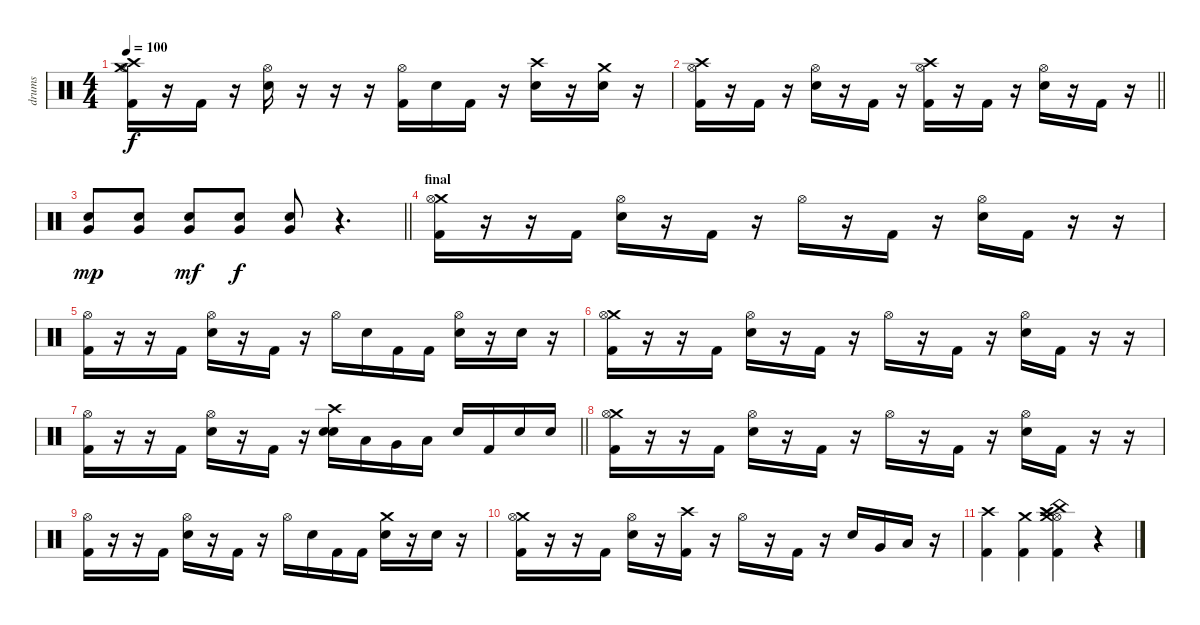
\track ("drums" "drums") {instrument percussion}
\staff {score}
\articulation defaults
\ts (4 4)
\tempo 100
\clef neutral
\ks c
("Crash medium (hit)" "Crash high (hit)" "Hi-Hat (open)" "Kick (hit) 2").16{dy f} r.16 "Kick (hit) 2".16 r.16 ("Hi-Hat (open)" "Electric Snare (hit)").16 r.16 r.16 r.16 ("Hi-Hat (open)" "Kick (hit) 2").16 "Electric Snare (hit)".16 "Kick (hit) 2".16 r.16 ("Crash high (hit)" "Electric Snare (hit)").16 r.16 ("Crash medium (hit)" "Electric Snare (hit)").16 r.16 |
\barLineRight lightlight
("Crash high (hit)" "Hi-Hat (open)" "Kick (hit) 2").16 r.16 "Kick (hit) 2".16 r.16 ("Hi-Hat (open)" "Electric Snare (hit)").16 r.16 "Kick (hit) 2".16 r.16 ("Crash high (hit)" "Hi-Hat (open)" "Kick (hit) 2").16 r.16 "Kick (hit) 2".16 r.16 ("Hi-Hat (open)" "Electric Snare (hit)").16 r.16 "Kick (hit) 2".16 r.16 |
\barLineRight lightlight
("Electric Snare (hit)" "Very Low Tom (hit)").8{dy mp} ("Electric Snare (hit)" "Very Low Tom (hit)").8 ("Electric Snare (hit)" "Very Low Tom (hit)").8{dy mf} ("Electric Snare (hit)" "Very Low Tom (hit)").8{dy f} ("Electric Snare (hit)" "Very Low Tom (hit)").8 r.4{d} |
\section ("" "final")
("Crash medium (hit)" "Hi-Hat (open)" "Kick (hit) 2").16 r.16 r.16 "Kick (hit) 2".16 ("Hi-Hat (open)" "Electric Snare (hit)").16 r.16 "Kick (hit) 2".16 r.16 "Hi-Hat (open)".16 r.16 "Kick (hit) 2".16 r.16 ("Hi-Hat (open)" "Electric Snare (hit)").16 "Kick (hit) 2".16 r.16 r.16 |
("Hi-Hat (open)" "Kick (hit) 2").16 r.16 r.16 "Kick (hit) 2".16 ("Hi-Hat (open)" "Electric Snare (hit)").16 r.16 "Kick (hit) 2".16 r.16 "Hi-Hat (open)".16 "Electric Snare (hit)".16 "Kick (hit) 2".16 "Kick (hit) 2".16 ("Hi-Hat (open)" "Electric Snare (hit)").16 r.16 "Electric Snare (hit)".16 r.16 |
("Crash medium (hit)" "Hi-Hat (open)" "Kick (hit) 2").16 r.16 r.16 "Kick (hit) 2".16 ("Hi-Hat (open)" "Electric Snare (hit)").16 r.16 "Kick (hit) 2".16 r.16 "Hi-Hat (open)".16 r.16 "Kick (hit) 2".16 r.16 ("Hi-Hat (open)" "Electric Snare (hit)").16 "Kick (hit) 2".16 r.16 r.16 |
\barLineRight lightlight
("Hi-Hat (open)" "Kick (hit) 2").16 r.16 r.16 "Kick (hit) 2".16 ("Hi-Hat (open)" "Electric Snare (hit)").16 r.16 "Kick (hit) 2".16 r.16 ("Crash high (hit)" "Electric Snare (hit)" "Electric Snare (hit)").16 "Low Tom (hit)".16 "Very Low Tom (hit)".16 "Low Floor Tom (hit)".16 "Electric Snare (hit)".16 "Kick (hit) 2".16 "Electric Snare (hit)".16 "Electric Snare (hit)".16 |
("Crash medium (hit)" "Hi-Hat (open)" "Kick (hit) 2").16 r.16 r.16 "Kick (hit) 2".16 ("Hi-Hat (open)" "Electric Snare (hit)").16 r.16 "Kick (hit) 2".16 r.16 "Hi-Hat (open)".16 r.16 "Kick (hit) 2".16 r.16 ("Hi-Hat (open)" "Electric Snare (hit)").16 "Kick (hit) 2".16 r.16 r.16 |
("Hi-Hat (open)" "Kick (hit) 2").16 r.16 r.16 "Kick (hit) 2".16 ("Hi-Hat (open)" "Electric Snare (hit)").16 r.16 "Kick (hit) 2".16 r.16 "Hi-Hat (open)".16 "Electric Snare (hit)".16 "Kick (hit) 2".16 "Kick (hit) 2".16 ("Crash medium (hit)" "Electric Snare (hit)").16 r.16 "Electric Snare (hit)".16 r.16 |
("Crash medium (hit)" "Hi-Hat (open)" "Kick (hit) 2").16 r.16 r.16 "Kick (hit) 2".16 ("Hi-Hat (open)" "Electric Snare (hit)").16 r.16 ("Crash high (hit)" "Kick (hit) 2").16 r.16 "Hi-Hat (open)".16 r.16 "Kick (hit) 2".16 r.16 "Electric Snare (hit)".16 "Very Low Tom (hit)".16 "Low Floor Tom (hit)".16 r.16 |
("Crash high (hit)" "Kick (hit) 2").4 ("Crash medium (hit)" "Kick (hit) 2").4 ("Hi-Hat (open)" "China (hit)" "Splash (hit)" "Crash high (hit)" "Crash medium (hit)" "Kick (hit) 2").4 r.4
